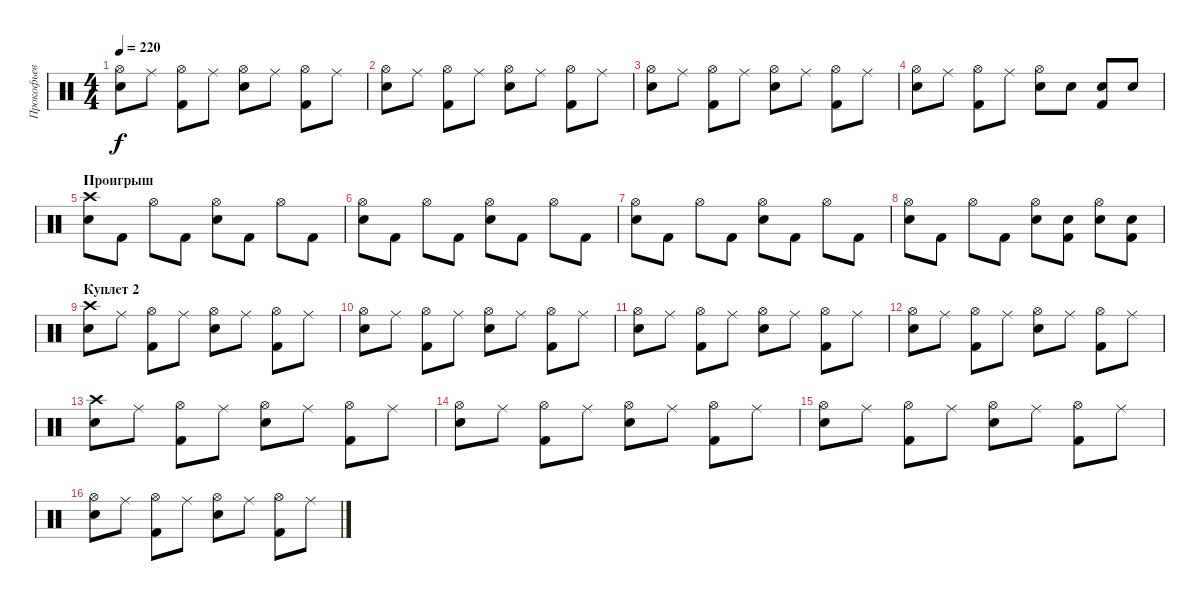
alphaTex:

\track ("Прокофьев" "Прокофьев") {instrument percussion}
\staff {score}
\articulation defaults
\ts (4 4)
\tempo 220
\clef neutral
\ks c
("Hi-Hat (open)" "Snare (hit) 2").8{dy f} "Ride (middle)".8 ("Hi-Hat (open)" "Kick (hit) 2").8 "Ride (middle)".8 ("Hi-Hat (open)" "Snare (hit) 2").8 "Ride (middle)".8 ("Hi-Hat (open)" "Kick (hit) 2").8 "Ride (middle)".8 |
("Hi-Hat (open)" "Snare (hit) 2").8 "Ride (middle)".8 ("Hi-Hat (open)" "Kick (hit) 2").8 "Ride (middle)".8 ("Hi-Hat (open)" "Snare (hit) 2").8 "Ride (middle)".8 ("Hi-Hat (open)" "Kick (hit) 2").8 "Ride (middle)".8 |
("Hi-Hat (open)" "Snare (hit) 2").8 "Ride (middle)".8 ("Hi-Hat (open)" "Kick (hit) 2").8 "Ride (middle)".8 ("Hi-Hat (open)" "Snare (hit) 2").8 "Ride (middle)".8 ("Hi-Hat (open)" "Kick (hit) 2").8 "Ride (middle)".8 |
("Hi-Hat (open)" "Snare (hit) 2").8 "Ride (middle)".8 ("Hi-Hat (open)" "Kick (hit) 2").8 "Ride (middle)".8 ("Hi-Hat (open)" "Snare (hit) 2").8 "Snare (hit) 2".8 ("Snare (hit) 2" "Kick (hit) 2").8 "Snare (hit) 2".8 |
\section ("" "Проигрыш")
("Crash high (hit)" "Snare (hit) 2").8 "Kick (hit) 2".8 "Hi-Hat (open)".8 "Kick (hit) 2".8 ("Hi-Hat (open)" "Snare (hit) 2").8 "Kick (hit) 2".8 "Hi-Hat (open)".8 "Kick (hit) 2".8 |
("Hi-Hat (open)" "Snare (hit) 2").8 "Kick (hit) 2".8 "Hi-Hat (open)".8 "Kick (hit) 2".8 ("Hi-Hat (open)" "Snare (hit) 2").8 "Kick (hit) 2".8 "Hi-Hat (open)".8 "Kick (hit) 2".8 |
("Hi-Hat (open)" "Snare (hit) 2").8 "Kick (hit) 2".8 "Hi-Hat (open)".8 "Kick (hit) 2".8 ("Hi-Hat (open)" "Snare (hit) 2").8 "Kick (hit) 2".8 "Hi-Hat (open)".8 "Kick (hit) 2".8 |
("Hi-Hat (open)" "Snare (hit) 2").8 "Kick (hit) 2".8 "Hi-Hat (open)".8 "Kick (hit) 2".8 ("Hi-Hat (open)" "Snare (hit) 2").8 ("Kick (hit) 2" "Snare (hit) 2").8 ("Hi-Hat (open)" "Snare (hit) 2").8 ("Kick (hit) 2" "Snare (hit) 2").8 |
\section ("" "Куплет 2")
("Crash high (hit)" "Snare (hit) 2").8 "Ride (middle)".8 ("Hi-Hat (open)" "Kick (hit) 2").8 "Ride (middle)".8 ("Hi-Hat (open)" "Snare (hit) 2").8 "Ride (middle)".8 ("Hi-Hat (open)" "Kick (hit) 2").8 "Ride (middle)".8 |
("Hi-Hat (open)" "Snare (hit) 2").8 "Ride (middle)".8 ("Hi-Hat (open)" "Kick (hit) 2").8 "Ride (middle)".8 ("Hi-Hat (open)" "Snare (hit) 2").8 "Ride (middle)".8 ("Hi-Hat (open)" "Kick (hit) 2").8 "Ride (middle)".8 |
("Hi-Hat (open)" "Snare (hit) 2").8 "Ride (middle)".8 ("Hi-Hat (open)" "Kick (hit) 2").8 "Ride (middle)".8 ("Hi-Hat (open)" "Snare (hit) 2").8 "Ride (middle)".8 ("Hi-Hat (open)" "Kick (hit) 2").8 "Ride (middle)".8 |
("Hi-Hat (open)" "Snare (hit) 2").8 "Ride (middle)".8 ("Hi-Hat (open)" "Kick (hit) 2").8 "Ride (middle)".8 ("Hi-Hat (open)" "Snare (hit) 2").8 "Ride (middle)".8 ("Hi-Hat (open)" "Kick (hit) 2").8 "Ride (middle)".8 |
("Crash high (hit)" "Snare (hit) 2").8 "Ride (middle)".8 ("Hi-Hat (open)" "Kick (hit) 2").8 "Ride (middle)".8 ("Hi-Hat (open)" "Snare (hit) 2").8 "Ride (middle)".8 ("Hi-Hat (open)" "Kick (hit) 2").8 "Ride (middle)".8 |
("Hi-Hat (open)" "Snare (hit) 2").8 "Ride (middle)".8 ("Hi-Hat (open)" "Kick (hit) 2").8 "Ride (middle)".8 ("Hi-Hat (open)" "Snare (hit) 2").8 "Ride (middle)".8 ("Hi-Hat (open)" "Kick (hit) 2").8 "Ride (middle)".8 |
("Hi-Hat (open)" "Snare (hit) 2").8 "Ride (middle)".8 ("Hi-Hat (open)" "Kick (hit) 2").8 "Ride (middle)".8 ("Hi-Hat (open)" "Snare (hit) 2").8 "Ride (middle)".8 ("Hi-Hat (open)" "Kick (hit) 2").8 "Ride (middle)".8 |
("Hi-Hat (open)" "Snare (hit) 2").8 "Ride (middle)".8 ("Hi-Hat (open)" "Kick (hit) 2").8 "Ride (middle)".8 ("Hi-Hat (open)" "Snare (hit) 2").8 "Ride (middle)".8 ("Hi-Hat (open)" "Kick (hit) 2").8 "Ride (middle)".8
